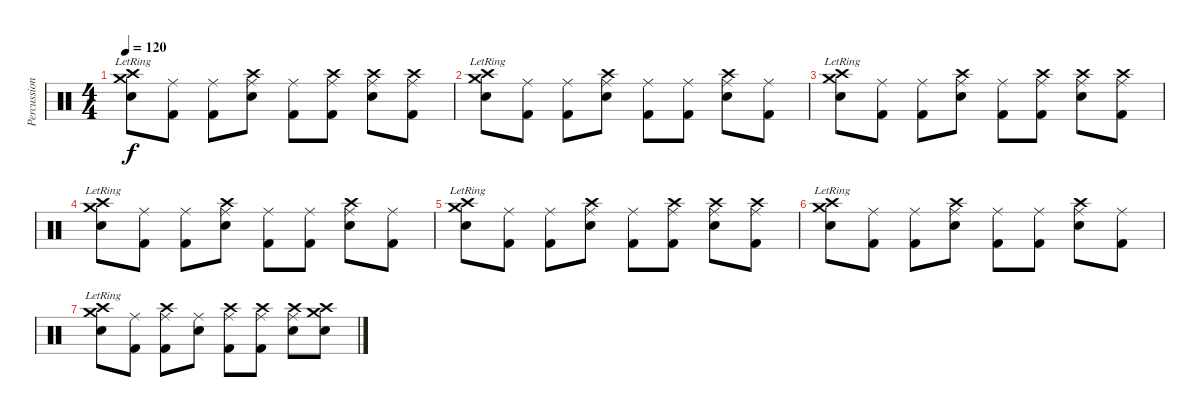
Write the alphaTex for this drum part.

\track ("Percussion" "Percussion") {instrument percussion}
\staff {score}
\articulation defaults
\ts (4 4)
\tempo 120
\clef neutral
\ks c
("Crash medium (hit)"{lr} "Crash high (hit)" "Snare (hit) 2").8{dy f} ("Ride (middle)" "Kick (hit) 2").8 ("Ride (middle)" "Kick (hit) 2").8 ("Ride (middle)" "Crash high (hit)" "Snare (hit) 2").8 ("Ride (middle)" "Kick (hit) 2").8 ("Ride (middle)" "Crash high (hit)" "Kick (hit) 2").8 ("Ride (middle)" "Crash high (hit)" "Snare (hit) 2").8 ("Ride (middle)" "Crash high (hit)" "Kick (hit) 2").8 |
("Crash medium (hit)"{lr} "Crash high (hit)" "Snare (hit) 2").8 ("Ride (middle)" "Kick (hit) 2").8 ("Ride (middle)" "Kick (hit) 2").8 ("Ride (middle)" "Crash high (hit)" "Snare (hit) 2").8 ("Ride (middle)" "Kick (hit) 2").8 ("Ride (middle)" "Kick (hit) 2").8 ("Ride (middle)" "Crash high (hit)" "Snare (hit) 2").8 ("Ride (middle)" "Kick (hit) 2").8 |
("Crash medium (hit)"{lr} "Crash high (hit)" "Snare (hit) 2").8 ("Ride (middle)" "Kick (hit) 2").8 ("Ride (middle)" "Kick (hit) 2").8 ("Ride (middle)" "Crash high (hit)" "Snare (hit) 2").8 ("Ride (middle)" "Kick (hit) 2").8 ("Ride (middle)" "Crash high (hit)" "Kick (hit) 2").8 ("Ride (middle)" "Crash high (hit)" "Snare (hit) 2").8 ("Ride (middle)" "Crash high (hit)" "Kick (hit) 2").8 |
("Crash medium (hit)"{lr} "Crash high (hit)" "Snare (hit) 2").8 ("Ride (middle)" "Kick (hit) 2").8 ("Ride (middle)" "Kick (hit) 2").8 ("Ride (middle)" "Crash high (hit)" "Snare (hit) 2").8 ("Ride (middle)" "Kick (hit) 2").8 ("Ride (middle)" "Kick (hit) 2").8 ("Ride (middle)" "Crash high (hit)" "Snare (hit) 2").8 ("Ride (middle)" "Kick (hit) 2").8 |
("Crash medium (hit)"{lr} "Crash high (hit)" "Snare (hit) 2").8 ("Ride (middle)" "Kick (hit) 2").8 ("Ride (middle)" "Kick (hit) 2").8 ("Ride (middle)" "Crash high (hit)" "Snare (hit) 2").8 ("Ride (middle)" "Kick (hit) 2").8 ("Ride (middle)" "Crash high (hit)" "Kick (hit) 2").8 ("Ride (middle)" "Crash high (hit)" "Snare (hit) 2").8 ("Ride (middle)" "Crash high (hit)" "Kick (hit) 2").8 |
("Crash medium (hit)"{lr} "Crash high (hit)" "Snare (hit) 2").8 ("Ride (middle)" "Kick (hit) 2").8 ("Ride (middle)" "Kick (hit) 2").8 ("Ride (middle)" "Crash high (hit)" "Snare (hit) 2").8 ("Ride (middle)" "Kick (hit) 2").8 ("Ride (middle)" "Kick (hit) 2").8 ("Ride (middle)" "Crash high (hit)" "Snare (hit) 2").8 ("Ride (middle)" "Kick (hit) 2").8 |
("Crash medium (hit)"{lr} "Crash high (hit)" "Snare (hit) 2").8 ("Ride (middle)" "Kick (hit) 2").8 ("Ride (middle)" "Crash high (hit)" "Kick (hit) 2").8 ("Ride (middle)" "Snare (hit) 2").8 ("Ride (middle)" "Crash high (hit)" "Kick (hit) 2").8 ("Ride (middle)" "Crash high (hit)" "Kick (hit) 2").8 ("Ride (middle)" "Crash high (hit)" "Snare (hit) 2").8 ("Crash medium (hit)" "Crash high (hit)" "Snare (hit) 2").8
